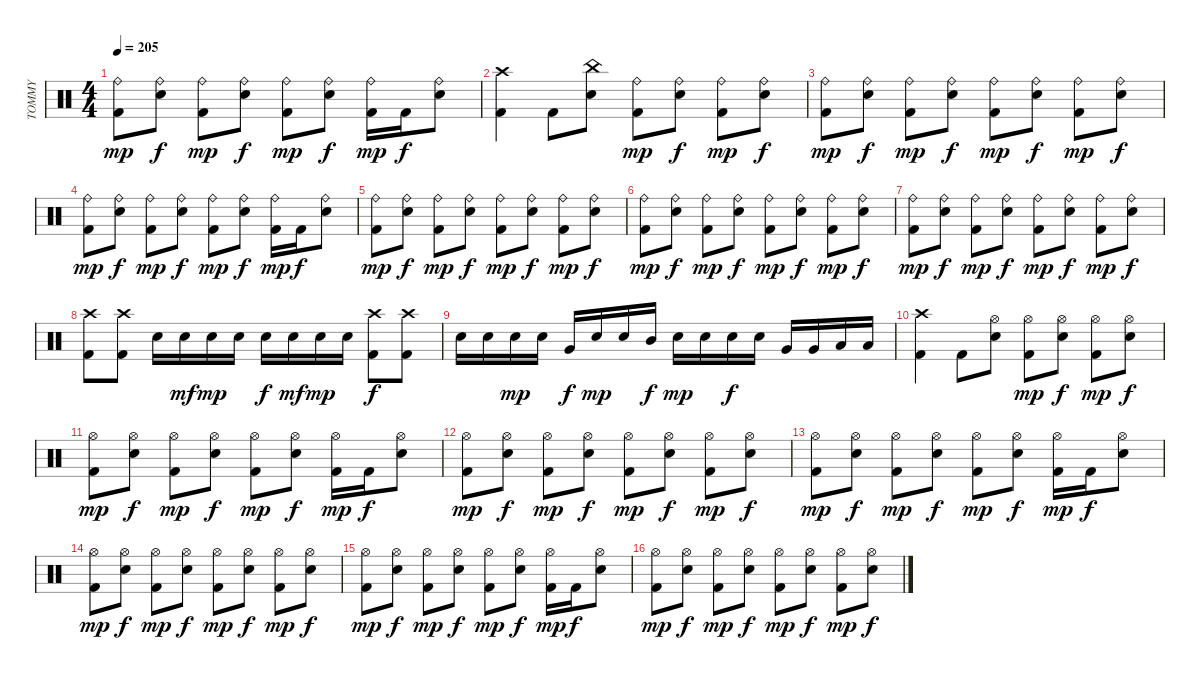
\track ("TOMMY" "TOMMY") {instrument percussion}
\staff {score}
\articulation defaults
\ts (4 4)
\tempo 205
\clef neutral
\ks c
("Kick (hit) 2" "Ride (bell)").8{dy mp} ("Snare (hit) 2" "Ride (bell)").8{dy f} ("Kick (hit) 2" "Ride (bell)").8{dy mp} ("Snare (hit) 2" "Ride (bell)").8{dy f} ("Kick (hit) 2" "Ride (bell)").8{dy mp} ("Snare (hit) 2" "Ride (bell)").8{dy f} ("Kick (hit) 2" "Ride (bell)").16{dy mp} "Kick (hit) 2".16{dy f} ("Snare (hit) 2" "Ride (bell)").8 |
("Kick (hit) 2" "Crash high (hit)").4 "Kick (hit) 2".8 ("Snare (hit) 2" "China (hit)").8 ("Kick (hit) 2" "Ride (bell)").8{dy mp} ("Snare (hit) 2" "Ride (bell)").8{dy f} ("Kick (hit) 2" "Ride (bell)").8{dy mp} ("Snare (hit) 2" "Ride (bell)").8{dy f} |
("Kick (hit) 2" "Ride (bell)").8{dy mp} ("Snare (hit) 2" "Ride (bell)").8{dy f} ("Kick (hit) 2" "Ride (bell)").8{dy mp} ("Snare (hit) 2" "Ride (bell)").8{dy f} ("Kick (hit) 2" "Ride (bell)").8{dy mp} ("Snare (hit) 2" "Ride (bell)").8{dy f} ("Kick (hit) 2" "Ride (bell)").8{dy mp} ("Snare (hit) 2" "Ride (bell)").8{dy f} |
("Kick (hit) 2" "Ride (bell)").8{dy mp} ("Snare (hit) 2" "Ride (bell)").8{dy f} ("Kick (hit) 2" "Ride (bell)").8{dy mp} ("Snare (hit) 2" "Ride (bell)").8{dy f} ("Kick (hit) 2" "Ride (bell)").8{dy mp} ("Snare (hit) 2" "Ride (bell)").8{dy f} ("Kick (hit) 2" "Ride (bell)").16{dy mp} "Kick (hit) 2".16{dy f} ("Snare (hit) 2" "Ride (bell)").8 |
("Kick (hit) 2" "Ride (bell)").8{dy mp} ("Snare (hit) 2" "Ride (bell)").8{dy f} ("Kick (hit) 2" "Ride (bell)").8{dy mp} ("Snare (hit) 2" "Ride (bell)").8{dy f} ("Kick (hit) 2" "Ride (bell)").8{dy mp} ("Snare (hit) 2" "Ride (bell)").8{dy f} ("Kick (hit) 2" "Ride (bell)").8{dy mp} ("Snare (hit) 2" "Ride (bell)").8{dy f} |
("Kick (hit) 2" "Ride (bell)").8{dy mp} ("Snare (hit) 2" "Ride (bell)").8{dy f} ("Kick (hit) 2" "Ride (bell)").8{dy mp} ("Snare (hit) 2" "Ride (bell)").8{dy f} ("Kick (hit) 2" "Ride (bell)").8{dy mp} ("Snare (hit) 2" "Ride (bell)").8{dy f} ("Kick (hit) 2" "Ride (bell)").8{dy mp} ("Snare (hit) 2" "Ride (bell)").8{dy f} |
("Kick (hit) 2" "Ride (bell)").8{dy mp} ("Snare (hit) 2" "Ride (bell)").8{dy f} ("Kick (hit) 2" "Ride (bell)").8{dy mp} ("Snare (hit) 2" "Ride (bell)").8{dy f} ("Kick (hit) 2" "Ride (bell)").8{dy mp} ("Snare (hit) 2" "Ride (bell)").8{dy f} ("Kick (hit) 2" "Ride (bell)").8{dy mp} ("Snare (hit) 2" "Ride (bell)").8{dy f} |
("Kick (hit) 2" "Crash high (hit)").8 ("Kick (hit) 2" "Crash high (hit)").8 "Snare (hit) 2".16 "Snare (hit) 2".16{dy mf} "Snare (hit) 2".16{dy mp} "Snare (hit) 2".16 "Snare (hit) 2".16{dy f} "Snare (hit) 2".16{dy mf} "Snare (hit) 2".16{dy mp} "Snare (hit) 2".16 ("Kick (hit) 2" "Crash high (hit)").8{dy f} ("Kick (hit) 2" "Crash high (hit)").8 |
"Snare (hit) 2".16 "Snare (hit) 2".16 "Snare (hit) 2".16{dy mp} "Snare (hit) 2".16 "Very Low Tom (hit)".16{dy f} "Snare (hit) 2".16{dy mp} "Snare (hit) 2".16 "Mid Tom (hit)".16{dy f} "Snare (hit) 2".16{dy mp} "Snare (hit) 2".16 "Snare (hit) 2".16{dy f} "Snare (hit) 2".16 "Very Low Tom (hit)".16 "Very Low Tom (hit)".16 "Low Floor Tom (hit)".16 "Low Floor Tom (hit)".16 |
("Kick (hit) 2" "Crash high (hit)").4 "Kick (hit) 2".8 ("Snare (hit) 2" "Hi-Hat (open)").8 ("Kick (hit) 2" "Hi-Hat (open)").8{dy mp} ("Snare (hit) 2" "Hi-Hat (open)").8{dy f} ("Kick (hit) 2" "Hi-Hat (open)").8{dy mp} ("Snare (hit) 2" "Hi-Hat (open)").8{dy f} |
("Kick (hit) 2" "Hi-Hat (open)").8{dy mp} ("Snare (hit) 2" "Hi-Hat (open)").8{dy f} ("Kick (hit) 2" "Hi-Hat (open)").8{dy mp} ("Snare (hit) 2" "Hi-Hat (open)").8{dy f} ("Kick (hit) 2" "Hi-Hat (open)").8{dy mp} ("Snare (hit) 2" "Hi-Hat (open)").8{dy f} ("Kick (hit) 2" "Hi-Hat (open)").16{dy mp} "Kick (hit) 2".16{dy f} ("Snare (hit) 2" "Hi-Hat (open)").8 |
("Kick (hit) 2" "Hi-Hat (open)").8{dy mp} ("Snare (hit) 2" "Hi-Hat (open)").8{dy f} ("Kick (hit) 2" "Hi-Hat (open)").8{dy mp} ("Snare (hit) 2" "Hi-Hat (open)").8{dy f} ("Kick (hit) 2" "Hi-Hat (open)").8{dy mp} ("Snare (hit) 2" "Hi-Hat (open)").8{dy f} ("Kick (hit) 2" "Hi-Hat (open)").8{dy mp} ("Snare (hit) 2" "Hi-Hat (open)").8{dy f} |
("Kick (hit) 2" "Hi-Hat (open)").8{dy mp} ("Snare (hit) 2" "Hi-Hat (open)").8{dy f} ("Kick (hit) 2" "Hi-Hat (open)").8{dy mp} ("Snare (hit) 2" "Hi-Hat (open)").8{dy f} ("Kick (hit) 2" "Hi-Hat (open)").8{dy mp} ("Snare (hit) 2" "Hi-Hat (open)").8{dy f} ("Kick (hit) 2" "Hi-Hat (open)").16{dy mp} "Kick (hit) 2".16{dy f} ("Snare (hit) 2" "Hi-Hat (open)").8 |
("Kick (hit) 2" "Hi-Hat (open)").8{dy mp} ("Snare (hit) 2" "Hi-Hat (open)").8{dy f} ("Kick (hit) 2" "Hi-Hat (open)").8{dy mp} ("Snare (hit) 2" "Hi-Hat (open)").8{dy f} ("Kick (hit) 2" "Hi-Hat (open)").8{dy mp} ("Snare (hit) 2" "Hi-Hat (open)").8{dy f} ("Kick (hit) 2" "Hi-Hat (open)").8{dy mp} ("Snare (hit) 2" "Hi-Hat (open)").8{dy f} |
("Kick (hit) 2" "Hi-Hat (open)").8{dy mp} ("Snare (hit) 2" "Hi-Hat (open)").8{dy f} ("Kick (hit) 2" "Hi-Hat (open)").8{dy mp} ("Snare (hit) 2" "Hi-Hat (open)").8{dy f} ("Kick (hit) 2" "Hi-Hat (open)").8{dy mp} ("Snare (hit) 2" "Hi-Hat (open)").8{dy f} ("Kick (hit) 2" "Hi-Hat (open)").16{dy mp} "Kick (hit) 2".16{dy f} ("Snare (hit) 2" "Hi-Hat (open)").8 |
("Kick (hit) 2" "Hi-Hat (open)").8{dy mp} ("Snare (hit) 2" "Hi-Hat (open)").8{dy f} ("Kick (hit) 2" "Hi-Hat (open)").8{dy mp} ("Snare (hit) 2" "Hi-Hat (open)").8{dy f} ("Kick (hit) 2" "Hi-Hat (open)").8{dy mp} ("Snare (hit) 2" "Hi-Hat (open)").8{dy f} ("Kick (hit) 2" "Hi-Hat (open)").8{dy mp} ("Snare (hit) 2" "Hi-Hat (open)").8{dy f}
